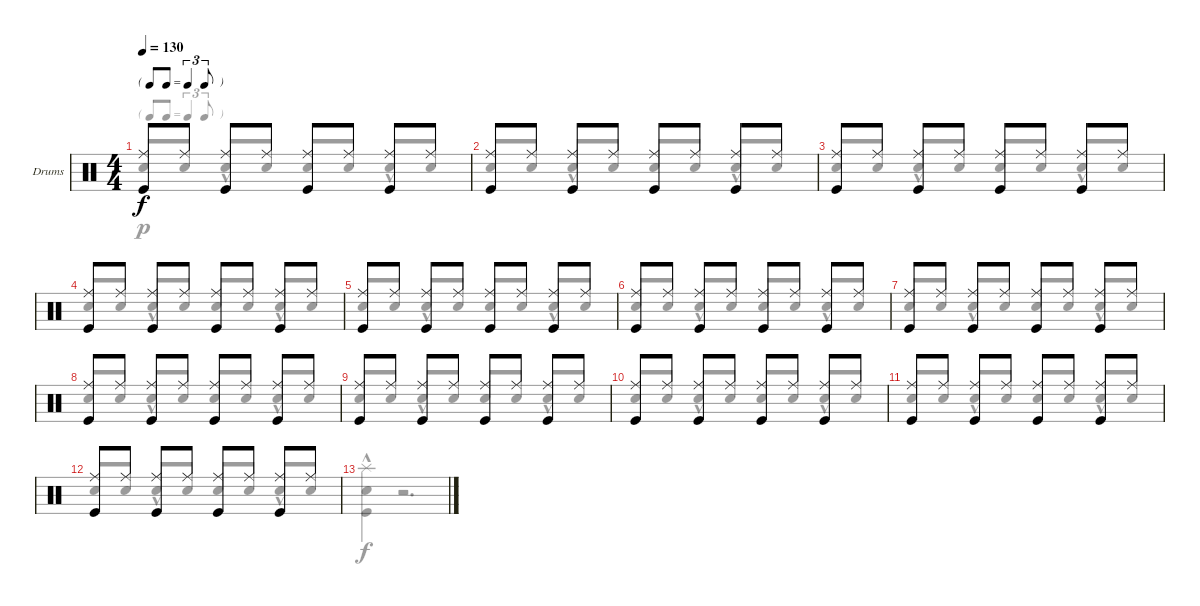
\defaultSystemsLayout 4
\bracketExtendMode groupsimilarinstruments
\firstSystemTrackNameOrientation horizontal
\otherSystemsTrackNameOrientation horizontal
\track ("Drumkit" "Drums") {instrument percussion}
\staff {score}
\articulation defaults
\voice
\ts (4 4)
\tf triplet8th
\tempo 130
\clef neutral
\scale
0.472222
\ks c
("Ride (middle)" "Kick (hit)").8{dy f} "Ride (middle)".8 ("Ride (middle)" "Kick (hit)").8 "Ride (middle)".8 ("Ride (middle)" "Kick (hit)").8 "Ride (middle)".8 ("Ride (middle)" "Kick (hit)").8 "Ride (middle)".8 |
\scale
0.263889 ("Ride (middle)" "Kick (hit)").8 "Ride (middle)".8 ("Ride (middle)" "Kick (hit)").8 "Ride (middle)".8 ("Ride (middle)" "Kick (hit)").8 "Ride (middle)".8 ("Ride (middle)" "Kick (hit)").8 "Ride (middle)".8 |
\scale
0.263889 ("Ride (middle)" "Kick (hit)").8 "Ride (middle)".8 ("Ride (middle)" "Kick (hit)").8 "Ride (middle)".8 ("Ride (middle)" "Kick (hit)").8 "Ride (middle)".8 ("Ride (middle)" "Kick (hit)").8 "Ride (middle)".8 |
\scale
0.333333 ("Ride (middle)" "Kick (hit)").8 "Ride (middle)".8 ("Ride (middle)" "Kick (hit)").8 "Ride (middle)".8 ("Ride (middle)" "Kick (hit)").8 "Ride (middle)".8 ("Ride (middle)" "Kick (hit)").8 "Ride (middle)".8 |
\scale
0.333333 ("Ride (middle)" "Kick (hit)").8 "Ride (middle)".8 ("Ride (middle)" "Kick (hit)").8 "Ride (middle)".8 ("Ride (middle)" "Kick (hit)").8 "Ride (middle)".8 ("Ride (middle)" "Kick (hit)").8 "Ride (middle)".8 |
\scale
0.333333 ("Ride (middle)" "Kick (hit)").8 "Ride (middle)".8 ("Ride (middle)" "Kick (hit)").8 "Ride (middle)".8 ("Ride (middle)" "Kick (hit)").8 "Ride (middle)".8 ("Ride (middle)" "Kick (hit)").8 "Ride (middle)".8 |
\scale
0.333333 ("Ride (middle)" "Kick (hit)").8 "Ride (middle)".8 ("Ride (middle)" "Kick (hit)").8 "Ride (middle)".8 ("Ride (middle)" "Kick (hit)").8 "Ride (middle)".8 ("Ride (middle)" "Kick (hit)").8 "Ride (middle)".8 |
\scale
0.333333 ("Ride (middle)" "Kick (hit)").8 "Ride (middle)".8 ("Ride (middle)" "Kick (hit)").8 "Ride (middle)".8 ("Ride (middle)" "Kick (hit)").8 "Ride (middle)".8 ("Ride (middle)" "Kick (hit)").8 "Ride (middle)".8 |
\scale
0.333333 ("Ride (middle)" "Kick (hit)").8 "Ride (middle)".8 ("Ride (middle)" "Kick (hit)").8 "Ride (middle)".8 ("Ride (middle)" "Kick (hit)").8 "Ride (middle)".8 ("Ride (middle)" "Kick (hit)").8 "Ride (middle)".8 |
\scale
0.333333 ("Ride (middle)" "Kick (hit)").8 "Ride (middle)".8 ("Ride (middle)" "Kick (hit)").8 "Ride (middle)".8 ("Ride (middle)" "Kick (hit)").8 "Ride (middle)".8 ("Ride (middle)" "Kick (hit)").8 "Ride (middle)".8 |
\scale
0.333333 ("Ride (middle)" "Kick (hit)").8 "Ride (middle)".8 ("Ride (middle)" "Kick (hit)").8 "Ride (middle)".8 ("Ride (middle)" "Kick (hit)").8 "Ride (middle)".8 ("Ride (middle)" "Kick (hit)").8 "Ride (middle)".8 |
\scale
0.333333 ("Ride (middle)" "Kick (hit)").8 "Ride (middle)".8 ("Ride (middle)" "Kick (hit)").8 "Ride (middle)".8 ("Ride (middle)" "Kick (hit)").8 "Ride (middle)".8 ("Ride (middle)" "Kick (hit)").8 "Ride (middle)".8 |
\voice
\clef neutral
\ottava regular
\simile none
\scale
0.472222
\ks c "Snare (hit) 2".8{dy p beam invert} "Snare (hit) 2".8 "Snare (hit) 2"{hac}.8{beam invert} "Snare (hit) 2".8 "Snare (hit) 2".8{beam invert} "Snare (hit) 2".8 "Snare (hit) 2"{hac}.8{beam invert} "Snare (hit) 2".8
|
\scale
0.263889 "Snare (hit) 2".8{beam invert} "Snare (hit) 2".8 "Snare (hit) 2"{hac}.8{beam invert} "Snare (hit) 2".8 "Snare (hit) 2".8{beam invert} "Snare (hit) 2".8 "Snare (hit) 2"{hac}.8{beam invert} "Snare (hit) 2".8 |
\scale
0.263889 "Snare (hit) 2".8{beam invert} "Snare (hit) 2".8 "Snare (hit) 2"{hac}.8{beam invert} "Snare (hit) 2".8 "Snare (hit) 2".8{beam invert} "Snare (hit) 2".8 "Snare (hit) 2"{hac}.8{beam invert} "Snare (hit) 2".8 |
\scale
0.333333 "Snare (hit) 2".8{beam invert} "Snare (hit) 2".8 "Snare (hit) 2"{hac}.8{beam invert} "Snare (hit) 2".8 "Snare (hit) 2".8{beam invert} "Snare (hit) 2".8 "Snare (hit) 2"{hac}.8{beam invert} "Snare (hit) 2".8 |
\scale
0.333333 "Snare (hit) 2".8{beam invert} "Snare (hit) 2".8 "Snare (hit) 2"{hac}.8{beam invert} "Snare (hit) 2".8 "Snare (hit) 2".8{beam invert} "Snare (hit) 2".8 "Snare (hit) 2"{hac}.8{beam invert} "Snare (hit) 2".8 |
\scale
0.333333 "Snare (hit) 2".8{beam invert} "Snare (hit) 2".8 "Snare (hit) 2"{hac}.8{beam invert} "Snare (hit) 2".8 "Snare (hit) 2".8{beam invert} "Snare (hit) 2".8 "Snare (hit) 2"{hac}.8{beam invert} "Snare (hit) 2".8 |
\scale
0.333333 "Snare (hit) 2".8{beam invert} "Snare (hit) 2".8 "Snare (hit) 2"{hac}.8{beam invert} "Snare (hit) 2".8 "Snare (hit) 2".8{beam invert} "Snare (hit) 2".8 "Snare (hit) 2"{hac}.8{beam invert} "Snare (hit) 2".8 |
\scale
0.333333 "Snare (hit) 2".8{beam invert} "Snare (hit) 2".8 "Snare (hit) 2"{hac}.8{beam invert} "Snare (hit) 2".8 "Snare (hit) 2".8{beam invert} "Snare (hit) 2".8 "Snare (hit) 2"{hac}.8{beam invert} "Snare (hit) 2".8 |
\scale
0.333333 "Snare (hit) 2".8{beam invert} "Snare (hit) 2".8 "Snare (hit) 2"{hac}.8{beam invert} "Snare (hit) 2".8 "Snare (hit) 2".8{beam invert} "Snare (hit) 2".8 "Snare (hit) 2"{hac}.8{beam invert} "Snare (hit) 2".8 |
\scale
0.333333 "Snare (hit) 2".8{beam invert} "Snare (hit) 2".8 "Snare (hit) 2"{hac}.8{beam invert} "Snare (hit) 2".8 "Snare (hit) 2".8{beam invert} "Snare (hit) 2".8 "Snare (hit) 2"{hac}.8{beam invert} "Snare (hit) 2".8 |
\scale
0.333333 "Snare (hit) 2".8{beam invert} "Snare (hit) 2".8 "Snare (hit) 2"{hac}.8{beam invert} "Snare (hit) 2".8 "Snare (hit) 2".8{beam invert} "Snare (hit) 2".8 "Snare (hit) 2"{hac}.8{beam invert} "Snare (hit) 2".8 |
\scale
0.333333 "Snare (hit) 2".8{beam invert} "Snare (hit) 2".8 "Snare (hit) 2"{hac}.8{beam invert} "Snare (hit) 2".8 "Snare (hit) 2".8{beam invert} "Snare (hit) 2".8 "Snare (hit) 2"{hac}.8{beam invert} "Snare (hit) 2".8 |
("Kick (hit)" "Snare (hit) 2" "Splash (hit)"{hac}).4{dy f} r.2{d}
